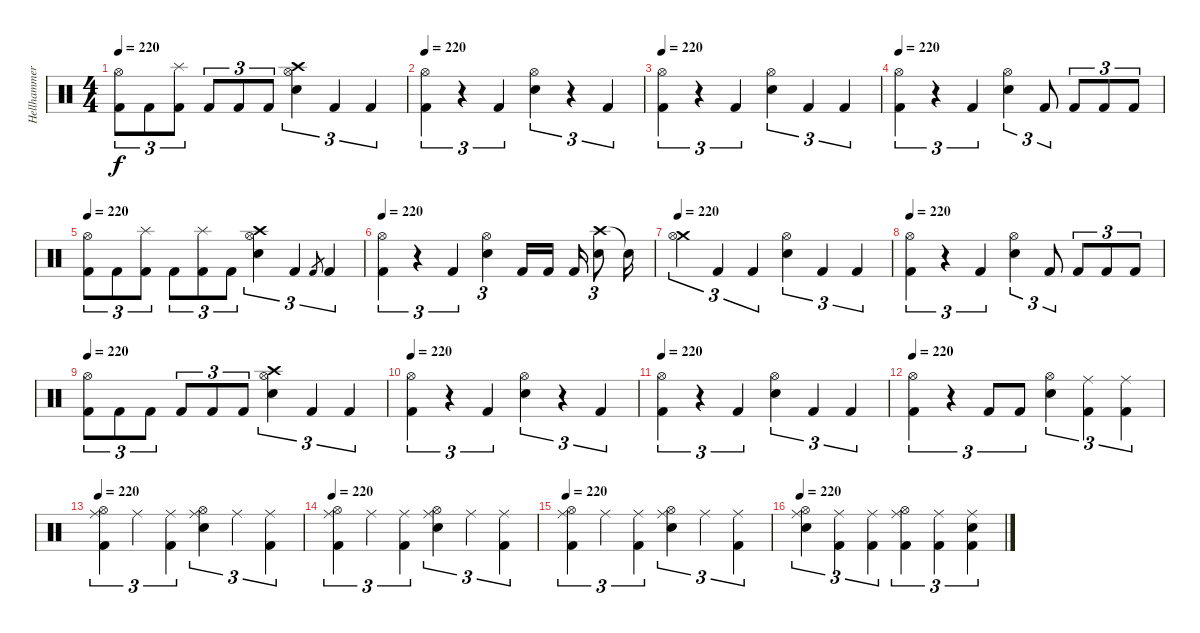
\track ("Hellhammer" "Hellhammer") {instrument percussion}
\staff {score}
\articulation defaults
\ts (4 4)
\tempo 220
\clef neutral
\ks c
("Hi-Hat (open)" "Kick (hit) 2").8{tu (3 2) dy f} "Kick (hit) 2".8{tu (3 2)} ("Splash (hit)" "Kick (hit) 2").8{tu (3 2)} "Kick (hit) 2".8{tu (3 2)} "Kick (hit) 2".8{tu (3 2)} "Kick (hit) 2".8{tu (3 2)} ("Crash high (hit)" "Hi-Hat (open)" "Snare (hit) 2").4{tu (3 2)} "Kick (hit) 2".4{tu (3 2)} "Kick (hit) 2".4{tu (3 2)} |
\tempo 220
("Hi-Hat (open)" "Kick (hit) 2").4{tu (3 2)} r.4{tu (3 2)} "Kick (hit) 2".4{tu (3 2)} ("Hi-Hat (open)" "Snare (hit) 2").4{tu (3 2)} r.4{tu (3 2)} "Kick (hit) 2".4{tu (3 2)} |
\tempo 220
("Hi-Hat (open)" "Kick (hit) 2").4{tu (3 2)} r.4{tu (3 2)} "Kick (hit) 2".4{tu (3 2)} ("Hi-Hat (open)" "Snare (hit) 2").4{tu (3 2)} "Kick (hit) 2".4{tu (3 2)} "Kick (hit) 2".4{tu (3 2)} |
\tempo 220
("Hi-Hat (open)" "Kick (hit) 2").4{tu (3 2)} r.4{tu (3 2)} "Kick (hit) 2".4{tu (3 2)} ("Hi-Hat (open)" "Snare (hit) 2").4{tu (3 2)} "Kick (hit) 2".8{tu (3 2)} "Kick (hit) 2".8{tu (3 2)} "Kick (hit) 2".8{tu (3 2)} "Kick (hit) 2".8{tu (3 2)} |
\tempo 220
("Hi-Hat (open)" "Kick (hit) 2").8{tu (3 2)} "Kick (hit) 2".8{tu (3 2)} ("Splash (hit)" "Kick (hit) 2").8{tu (3 2)} "Kick (hit) 2".8{tu (3 2)} ("Splash (hit)" "Kick (hit) 2").8{tu (3 2)} "Kick (hit) 2".8{tu (3 2)} ("Crash high (hit)" "Hi-Hat (open)" "Snare (hit) 2").4{tu (3 2)} "Kick (hit) 2".4{tu (3 2)} "Kick (hit) 2".8{gr} "Kick (hit) 2".4{tu (3 2)} |
\tempo 220
("Hi-Hat (open)" "Kick (hit) 2").4{tu (3 2)} r.4{tu (3 2)} "Kick (hit) 2".4{tu (3 2)} ("Hi-Hat (open)" "Snare (hit) 2").4{tu (3 2)} "Kick (hit) 2".16 "Kick (hit) 2".16 "Kick (hit) 2".16 ("Crash high (hit)" "Snare (hit) 2").8{tu (3 2)} "Snare (hit)"{t}.16 |
\tempo 220
("Crash medium (hit)" "Hi-Hat (open)").4{tu (3 2)} "Kick (hit) 2".4{tu (3 2)} "Kick (hit) 2".4{tu (3 2)} ("Hi-Hat (open)" "Snare (hit) 2").4{tu (3 2)} "Kick (hit) 2".4{tu (3 2)} "Kick (hit) 2".4{tu (3 2)} |
\tempo 220
("Hi-Hat (open)" "Kick (hit) 2").4{tu (3 2)} r.4{tu (3 2)} "Kick (hit) 2".4{tu (3 2)} ("Hi-Hat (open)" "Snare (hit) 2").4{tu (3 2)} "Kick (hit) 2".8{tu (3 2)} "Kick (hit) 2".8{tu (3 2)} "Kick (hit) 2".8{tu (3 2)} "Kick (hit) 2".8{tu (3 2)} |
\tempo 220
("Hi-Hat (open)" "Kick (hit) 2").8{tu (3 2)} "Kick (hit) 2".8{tu (3 2)} "Kick (hit) 2".8{tu (3 2)} "Kick (hit) 2".8{tu (3 2)} "Kick (hit) 2".8{tu (3 2)} "Kick (hit) 2".8{tu (3 2)} ("Crash high (hit)" "Hi-Hat (open)" "Snare (hit) 2").4{tu (3 2)} "Kick (hit) 2".4{tu (3 2)} "Kick (hit) 2".4{tu (3 2)} |
\tempo 220
("Hi-Hat (open)" "Kick (hit) 2").4{tu (3 2)} r.4{tu (3 2)} "Kick (hit) 2".4{tu (3 2)} ("Hi-Hat (open)" "Snare (hit) 2").4{tu (3 2)} r.4{tu (3 2)} "Kick (hit) 2".4{tu (3 2)} |
\tempo 220
("Hi-Hat (open)" "Kick (hit) 2").4{tu (3 2)} r.4{tu (3 2)} "Kick (hit) 2".4{tu (3 2)} ("Hi-Hat (open)" "Snare (hit) 2").4{tu (3 2)} "Kick (hit) 2".4{tu (3 2)} "Kick (hit) 2".4{tu (3 2)} |
\tempo 220
("Hi-Hat (open)" "Kick (hit) 2").4{tu (3 2)} r.4{tu (3 2)} "Kick (hit) 2".8{tu (3 2)} "Kick (hit) 2".8{tu (3 2)} ("Hi-Hat (open)" "Snare (hit) 2").4{tu (3 2)} ("Ride (middle)" "Kick (hit) 2").4{tu (3 2)} ("Ride (middle)" "Kick (hit) 2").4{tu (3 2)} |
\tempo 220
("Ride (middle)" "Hi-Hat (open)" "Kick (hit) 2").4{tu (3 2)} "Ride (middle)".4{tu (3 2)} ("Ride (middle)" "Kick (hit) 2").4{tu (3 2)} ("Ride (middle)" "Hi-Hat (open)" "Snare (hit) 2").4{tu (3 2)} "Ride (middle)".4{tu (3 2)} ("Ride (middle)" "Kick (hit) 2").4{tu (3 2)} |
\tempo 220
("Ride (middle)" "Hi-Hat (open)" "Kick (hit) 2").4{tu (3 2)} "Ride (middle)".4{tu (3 2)} ("Ride (middle)" "Kick (hit) 2").4{tu (3 2)} ("Ride (middle)" "Hi-Hat (open)" "Snare (hit) 2").4{tu (3 2)} "Ride (middle)".4{tu (3 2)} ("Ride (middle)" "Kick (hit) 2").4{tu (3 2)} |
\tempo 220
("Ride (middle)" "Hi-Hat (open)" "Kick (hit) 2").4{tu (3 2)} "Ride (middle)".4{tu (3 2)} ("Ride (middle)" "Kick (hit) 2").4{tu (3 2)} ("Ride (middle)" "Hi-Hat (open)" "Snare (hit) 2").4{tu (3 2)} "Ride (middle)".4{tu (3 2)} ("Ride (middle)" "Kick (hit) 2").4{tu (3 2)} |
\tempo 220
("Ride (middle)" "Hi-Hat (open)" "Snare (hit) 2").4{tu (3 2)} ("Ride (middle)" "Kick (hit) 2").4{tu (3 2)} ("Ride (middle)" "Kick (hit) 2").4{tu (3 2)} ("Ride (middle)" "Hi-Hat (open)" "Kick (hit) 2").4{tu (3 2)} ("Ride (middle)" "Kick (hit) 2").4{tu (3 2)} ("Ride (middle)" "Kick (hit) 2" "Snare (hit) 2").4{tu (3 2)}
